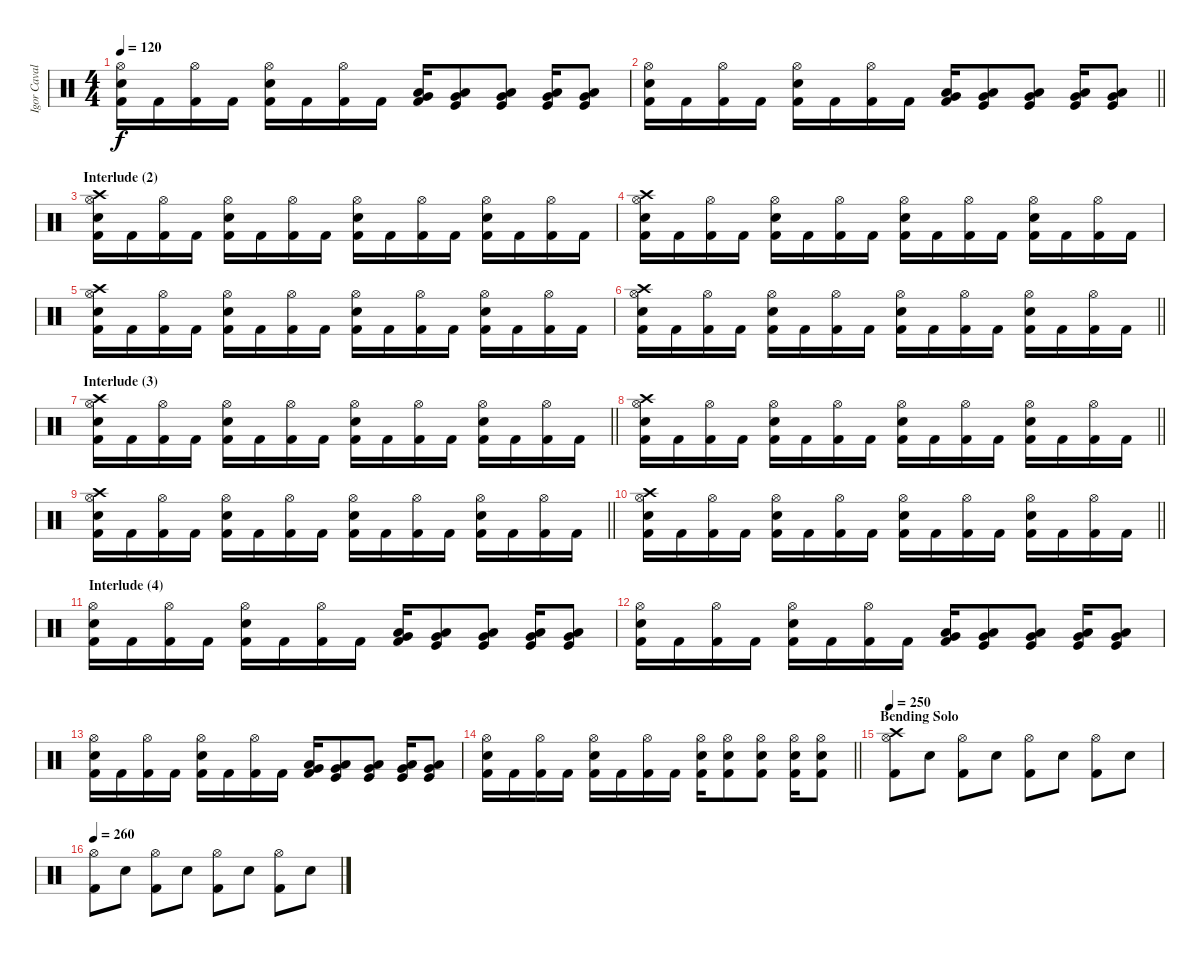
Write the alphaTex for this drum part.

\track ("Igor Cavalera" "Igor Caval") {instrument percussion}
\staff {score}
\articulation defaults
\ts (4 4)
\tempo 120
\clef neutral
\ks c
("Hi-Hat (open)" "Electric Snare (hit)" "Kick (hit) 2").16{dy f} "Kick (hit) 2".16 ("Hi-Hat (open)" "Kick (hit) 2").16 "Kick (hit) 2".16 ("Hi-Hat (open)" "Electric Snare (hit)" "Kick (hit) 2").16 "Kick (hit) 2".16 ("Hi-Hat (open)" "Kick (hit) 2").16 "Kick (hit) 2".16 ("Low Floor Tom (hit)" "Very Low Tom (hit)" "Kick (hit) 2").16 ("Low Floor Tom (hit)" "Very Low Tom (hit)" "Kick (hit)").8 ("Low Floor Tom (hit)" "Very Low Tom (hit)" "Kick (hit)").8 ("Low Floor Tom (hit)" "Very Low Tom (hit)" "Kick (hit)").16 ("Low Floor Tom (hit)" "Very Low Tom (hit)" "Kick (hit)").8 |
\barLineRight lightlight
("Hi-Hat (open)" "Electric Snare (hit)" "Kick (hit) 2").16 "Kick (hit) 2".16 ("Hi-Hat (open)" "Kick (hit) 2").16 "Kick (hit) 2".16 ("Hi-Hat (open)" "Electric Snare (hit)" "Kick (hit) 2").16 "Kick (hit) 2".16 ("Hi-Hat (open)" "Kick (hit) 2").16 "Kick (hit) 2".16 ("Low Floor Tom (hit)" "Very Low Tom (hit)" "Kick (hit) 2").16 ("Low Floor Tom (hit)" "Very Low Tom (hit)" "Kick (hit)").8 ("Low Floor Tom (hit)" "Very Low Tom (hit)" "Kick (hit)").8 ("Low Floor Tom (hit)" "Very Low Tom (hit)" "Kick (hit)").16 ("Low Floor Tom (hit)" "Very Low Tom (hit)" "Kick (hit)").8 |
\section ("" "Interlude (2)")
("Crash high (hit)" "Hi-Hat (open)" "Electric Snare (hit)" "Kick (hit) 2").16 "Kick (hit) 2".16 ("Hi-Hat (open)" "Kick (hit) 2").16 "Kick (hit) 2".16 ("Hi-Hat (open)" "Electric Snare (hit)" "Kick (hit) 2").16 "Kick (hit) 2".16 ("Hi-Hat (open)" "Kick (hit) 2").16 "Kick (hit) 2".16 ("Hi-Hat (open)" "Electric Snare (hit)" "Kick (hit) 2").16 "Kick (hit) 2".16 ("Hi-Hat (open)" "Kick (hit) 2").16 "Kick (hit) 2".16 ("Hi-Hat (open)" "Electric Snare (hit)" "Kick (hit) 2").16 "Kick (hit) 2".16 ("Hi-Hat (open)" "Kick (hit) 2").16 "Kick (hit) 2".16 |
("Crash high (hit)" "Hi-Hat (open)" "Electric Snare (hit)" "Kick (hit) 2").16 "Kick (hit) 2".16 ("Hi-Hat (open)" "Kick (hit) 2").16 "Kick (hit) 2".16 ("Hi-Hat (open)" "Electric Snare (hit)" "Kick (hit) 2").16 "Kick (hit) 2".16 ("Hi-Hat (open)" "Kick (hit) 2").16 "Kick (hit) 2".16 ("Hi-Hat (open)" "Electric Snare (hit)" "Kick (hit) 2").16 "Kick (hit) 2".16 ("Hi-Hat (open)" "Kick (hit) 2").16 "Kick (hit) 2".16 ("Hi-Hat (open)" "Electric Snare (hit)" "Kick (hit) 2").16 "Kick (hit) 2".16 ("Hi-Hat (open)" "Kick (hit) 2").16 "Kick (hit) 2".16 |
("Crash high (hit)" "Hi-Hat (open)" "Electric Snare (hit)" "Kick (hit) 2").16 "Kick (hit) 2".16 ("Hi-Hat (open)" "Kick (hit) 2").16 "Kick (hit) 2".16 ("Hi-Hat (open)" "Electric Snare (hit)" "Kick (hit) 2").16 "Kick (hit) 2".16 ("Hi-Hat (open)" "Kick (hit) 2").16 "Kick (hit) 2".16 ("Hi-Hat (open)" "Electric Snare (hit)" "Kick (hit) 2").16 "Kick (hit) 2".16 ("Hi-Hat (open)" "Kick (hit) 2").16 "Kick (hit) 2".16 ("Hi-Hat (open)" "Electric Snare (hit)" "Kick (hit) 2").16 "Kick (hit) 2".16 ("Hi-Hat (open)" "Kick (hit) 2").16 "Kick (hit) 2".16 |
\barLineRight lightlight
("Crash high (hit)" "Hi-Hat (open)" "Electric Snare (hit)" "Kick (hit) 2").16 "Kick (hit) 2".16 ("Hi-Hat (open)" "Kick (hit) 2").16 "Kick (hit) 2".16 ("Hi-Hat (open)" "Electric Snare (hit)" "Kick (hit) 2").16 "Kick (hit) 2".16 ("Hi-Hat (open)" "Kick (hit) 2").16 "Kick (hit) 2".16 ("Hi-Hat (open)" "Electric Snare (hit)" "Kick (hit) 2").16 "Kick (hit) 2".16 ("Hi-Hat (open)" "Kick (hit) 2").16 "Kick (hit) 2".16 ("Hi-Hat (open)" "Electric Snare (hit)" "Kick (hit) 2").16 "Kick (hit) 2".16 ("Hi-Hat (open)" "Kick (hit) 2").16 "Kick (hit) 2".16 |
\section ("" "Interlude (3)")
\barLineRight lightlight
("Crash high (hit)" "Hi-Hat (open)" "Electric Snare (hit)" "Kick (hit) 2").16 "Kick (hit) 2".16 ("Hi-Hat (open)" "Kick (hit) 2").16 "Kick (hit) 2".16 ("Hi-Hat (open)" "Electric Snare (hit)" "Kick (hit) 2").16 "Kick (hit) 2".16 ("Hi-Hat (open)" "Kick (hit) 2").16 "Kick (hit) 2".16 ("Hi-Hat (open)" "Electric Snare (hit)" "Kick (hit) 2").16 "Kick (hit) 2".16 ("Hi-Hat (open)" "Kick (hit) 2").16 "Kick (hit) 2".16 ("Hi-Hat (open)" "Electric Snare (hit)" "Kick (hit) 2").16 "Kick (hit) 2".16 ("Hi-Hat (open)" "Kick (hit) 2").16 "Kick (hit) 2".16 |
\barLineRight lightlight
("Crash high (hit)" "Hi-Hat (open)" "Electric Snare (hit)" "Kick (hit) 2").16 "Kick (hit) 2".16 ("Hi-Hat (open)" "Kick (hit) 2").16 "Kick (hit) 2".16 ("Hi-Hat (open)" "Electric Snare (hit)" "Kick (hit) 2").16 "Kick (hit) 2".16 ("Hi-Hat (open)" "Kick (hit) 2").16 "Kick (hit) 2".16 ("Hi-Hat (open)" "Electric Snare (hit)" "Kick (hit) 2").16 "Kick (hit) 2".16 ("Hi-Hat (open)" "Kick (hit) 2").16 "Kick (hit) 2".16 ("Hi-Hat (open)" "Electric Snare (hit)" "Kick (hit) 2").16 "Kick (hit) 2".16 ("Hi-Hat (open)" "Kick (hit) 2").16 "Kick (hit) 2".16 |
\barLineRight lightlight
("Crash high (hit)" "Hi-Hat (open)" "Electric Snare (hit)" "Kick (hit) 2").16 "Kick (hit) 2".16 ("Hi-Hat (open)" "Kick (hit) 2").16 "Kick (hit) 2".16 ("Hi-Hat (open)" "Electric Snare (hit)" "Kick (hit) 2").16 "Kick (hit) 2".16 ("Hi-Hat (open)" "Kick (hit) 2").16 "Kick (hit) 2".16 ("Hi-Hat (open)" "Electric Snare (hit)" "Kick (hit) 2").16 "Kick (hit) 2".16 ("Hi-Hat (open)" "Kick (hit) 2").16 "Kick (hit) 2".16 ("Hi-Hat (open)" "Electric Snare (hit)" "Kick (hit) 2").16 "Kick (hit) 2".16 ("Hi-Hat (open)" "Kick (hit) 2").16 "Kick (hit) 2".16 |
\barLineRight lightlight
("Crash high (hit)" "Hi-Hat (open)" "Electric Snare (hit)" "Kick (hit) 2").16 "Kick (hit) 2".16 ("Hi-Hat (open)" "Kick (hit) 2").16 "Kick (hit) 2".16 ("Hi-Hat (open)" "Electric Snare (hit)" "Kick (hit) 2").16 "Kick (hit) 2".16 ("Hi-Hat (open)" "Kick (hit) 2").16 "Kick (hit) 2".16 ("Hi-Hat (open)" "Electric Snare (hit)" "Kick (hit) 2").16 "Kick (hit) 2".16 ("Hi-Hat (open)" "Kick (hit) 2").16 "Kick (hit) 2".16 ("Hi-Hat (open)" "Electric Snare (hit)" "Kick (hit) 2").16 "Kick (hit) 2".16 ("Hi-Hat (open)" "Kick (hit) 2").16 "Kick (hit) 2".16 |
\section ("" "Interlude (4)")
("Hi-Hat (open)" "Electric Snare (hit)" "Kick (hit) 2").16 "Kick (hit) 2".16 ("Hi-Hat (open)" "Kick (hit) 2").16 "Kick (hit) 2".16 ("Hi-Hat (open)" "Electric Snare (hit)" "Kick (hit) 2").16 "Kick (hit) 2".16 ("Hi-Hat (open)" "Kick (hit) 2").16 "Kick (hit) 2".16 ("Low Floor Tom (hit)" "Very Low Tom (hit)" "Kick (hit) 2").16 ("Low Floor Tom (hit)" "Very Low Tom (hit)" "Kick (hit)").8 ("Low Floor Tom (hit)" "Very Low Tom (hit)" "Kick (hit)").8 ("Low Floor Tom (hit)" "Very Low Tom (hit)" "Kick (hit)").16 ("Low Floor Tom (hit)" "Very Low Tom (hit)" "Kick (hit)").8 |
("Hi-Hat (open)" "Electric Snare (hit)" "Kick (hit) 2").16 "Kick (hit) 2".16 ("Hi-Hat (open)" "Kick (hit) 2").16 "Kick (hit) 2".16 ("Hi-Hat (open)" "Electric Snare (hit)" "Kick (hit) 2").16 "Kick (hit) 2".16 ("Hi-Hat (open)" "Kick (hit) 2").16 "Kick (hit) 2".16 ("Low Floor Tom (hit)" "Very Low Tom (hit)" "Kick (hit) 2").16 ("Low Floor Tom (hit)" "Very Low Tom (hit)" "Kick (hit)").8 ("Low Floor Tom (hit)" "Very Low Tom (hit)" "Kick (hit)").8 ("Low Floor Tom (hit)" "Very Low Tom (hit)" "Kick (hit)").16 ("Low Floor Tom (hit)" "Very Low Tom (hit)" "Kick (hit)").8 |
("Hi-Hat (open)" "Electric Snare (hit)" "Kick (hit) 2").16 "Kick (hit) 2".16 ("Hi-Hat (open)" "Kick (hit) 2").16 "Kick (hit) 2".16 ("Hi-Hat (open)" "Electric Snare (hit)" "Kick (hit) 2").16 "Kick (hit) 2".16 ("Hi-Hat (open)" "Kick (hit) 2").16 "Kick (hit) 2".16 ("Low Floor Tom (hit)" "Very Low Tom (hit)" "Kick (hit) 2").16 ("Low Floor Tom (hit)" "Very Low Tom (hit)" "Kick (hit)").8 ("Low Floor Tom (hit)" "Very Low Tom (hit)" "Kick (hit)").8 ("Low Floor Tom (hit)" "Very Low Tom (hit)" "Kick (hit)").16 ("Low Floor Tom (hit)" "Very Low Tom (hit)" "Kick (hit)").8 |
\barLineRight lightlight
("Hi-Hat (open)" "Electric Snare (hit)" "Kick (hit) 2").16 "Kick (hit) 2".16 ("Hi-Hat (open)" "Kick (hit) 2").16 "Kick (hit) 2".16 ("Hi-Hat (open)" "Electric Snare (hit)" "Kick (hit) 2").16 "Kick (hit) 2".16 ("Hi-Hat (open)" "Kick (hit) 2").16 "Kick (hit) 2".16 ("Hi-Hat (open)" "Electric Snare (hit)" "Kick (hit) 2").16 ("Hi-Hat (open)" "Electric Snare (hit)" "Kick (hit) 2").8 ("Hi-Hat (open)" "Electric Snare (hit)" "Kick (hit) 2").8 ("Hi-Hat (open)" "Electric Snare (hit)" "Kick (hit) 2").16 ("Hi-Hat (open)" "Electric Snare (hit)" "Kick (hit) 2").8 |
\section ("" "Bending Solo")
\tempo 250
("Crash high (hit)" "Hi-Hat (open)" "Kick (hit) 2").8 "Electric Snare (hit)".8 ("Hi-Hat (open)" "Kick (hit) 2").8 "Electric Snare (hit)".8 ("Hi-Hat (open)" "Kick (hit) 2").8 "Electric Snare (hit)".8 ("Hi-Hat (open)" "Kick (hit) 2").8 "Electric Snare (hit)".8 |
\tempo 260
("Hi-Hat (open)" "Kick (hit) 2").8 "Electric Snare (hit)".8 ("Hi-Hat (open)" "Kick (hit) 2").8 "Electric Snare (hit)".8 ("Hi-Hat (open)" "Kick (hit) 2").8 "Electric Snare (hit)".8 ("Hi-Hat (open)" "Kick (hit) 2").8 "Electric Snare (hit)".8
